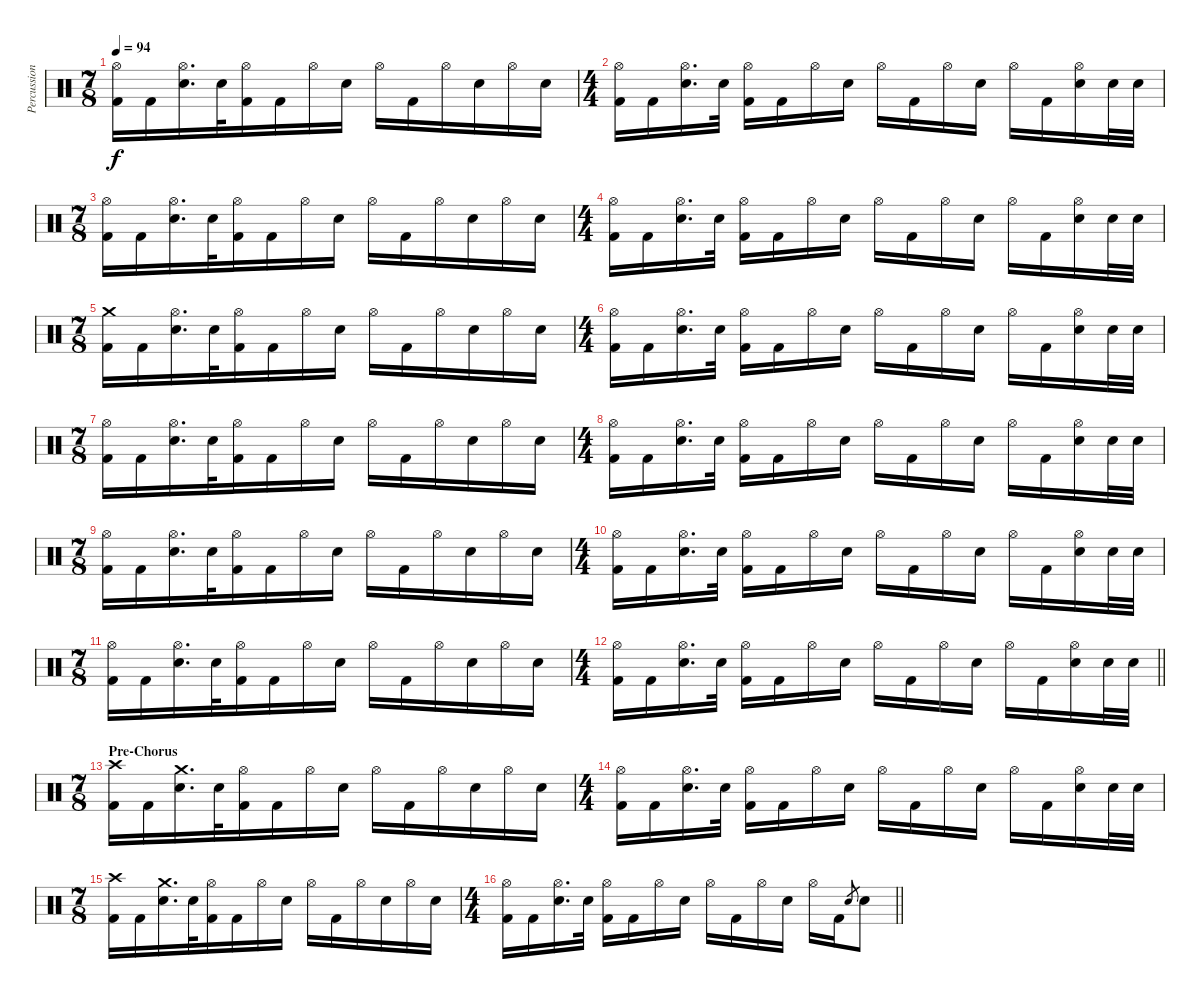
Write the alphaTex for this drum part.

\track ("Percussion" "Percussion") {instrument percussion}
\staff {score}
\articulation defaults
\ts (7 8)
\tempo 94
\clef neutral
\ks c
("Hi-Hat (open)" "Kick (hit) 2").16{dy f} "Kick (hit) 2".16 ("Hi-Hat (open)" "Electric Snare (hit)").16{d} "Electric Snare (hit)".32 ("Hi-Hat (open)" "Kick (hit) 2").16 "Kick (hit) 2".16 "Hi-Hat (open)".16 "Electric Snare (hit)".16 "Hi-Hat (open)".16 "Kick (hit) 2".16 "Hi-Hat (open)".16 "Electric Snare (hit)".16 "Hi-Hat (open)".16 "Electric Snare (hit)".16 |
\ts (4 4)
("Hi-Hat (open)" "Kick (hit) 2").16 "Kick (hit) 2".16 ("Hi-Hat (open)" "Electric Snare (hit)").16{d} "Electric Snare (hit)".32 ("Hi-Hat (open)" "Kick (hit) 2").16 "Kick (hit) 2".16 "Hi-Hat (open)".16 "Electric Snare (hit)".16 "Hi-Hat (open)".16 "Kick (hit) 2".16 "Hi-Hat (open)".16 "Electric Snare (hit)".16 "Hi-Hat (open)".16 "Kick (hit) 2".16 ("Hi-Hat (open)" "Electric Snare (hit)").16 "Electric Snare (hit)".32 "Electric Snare (hit)".32 |
\ts (7 8)
("Hi-Hat (open)" "Kick (hit) 2").16 "Kick (hit) 2".16 ("Hi-Hat (open)" "Electric Snare (hit)").16{d} "Electric Snare (hit)".32 ("Hi-Hat (open)" "Kick (hit) 2").16 "Kick (hit) 2".16 "Hi-Hat (open)".16 "Electric Snare (hit)".16 "Hi-Hat (open)".16 "Kick (hit) 2".16 "Hi-Hat (open)".16 "Electric Snare (hit)".16 "Hi-Hat (open)".16 "Electric Snare (hit)".16 |
\ts (4 4)
("Hi-Hat (open)" "Kick (hit) 2").16 "Kick (hit) 2".16 ("Hi-Hat (open)" "Electric Snare (hit)").16{d} "Electric Snare (hit)".32 ("Hi-Hat (open)" "Kick (hit) 2").16 "Kick (hit) 2".16 "Hi-Hat (open)".16 "Electric Snare (hit)".16 "Hi-Hat (open)".16 "Kick (hit) 2".16 "Hi-Hat (open)".16 "Electric Snare (hit)".16 "Hi-Hat (open)".16 "Kick (hit) 2".16 ("Hi-Hat (open)" "Electric Snare (hit)").16 "Electric Snare (hit)".32 "Electric Snare (hit)".32 |
\ts (7 8)
("Crash medium (hit)" "Kick (hit) 2").16 "Kick (hit) 2".16 ("Hi-Hat (open)" "Electric Snare (hit)").16{d} "Electric Snare (hit)".32 ("Hi-Hat (open)" "Kick (hit) 2").16 "Kick (hit) 2".16 "Hi-Hat (open)".16 "Electric Snare (hit)".16 "Hi-Hat (open)".16 "Kick (hit) 2".16 "Hi-Hat (open)".16 "Electric Snare (hit)".16 "Hi-Hat (open)".16 "Electric Snare (hit)".16 |
\ts (4 4)
("Hi-Hat (open)" "Kick (hit) 2").16 "Kick (hit) 2".16 ("Hi-Hat (open)" "Electric Snare (hit)").16{d} "Electric Snare (hit)".32 ("Hi-Hat (open)" "Kick (hit) 2").16 "Kick (hit) 2".16 "Hi-Hat (open)".16 "Electric Snare (hit)".16 "Hi-Hat (open)".16 "Kick (hit) 2".16 "Hi-Hat (open)".16 "Electric Snare (hit)".16 "Hi-Hat (open)".16 "Kick (hit) 2".16 ("Hi-Hat (open)" "Electric Snare (hit)").16 "Electric Snare (hit)".32 "Electric Snare (hit)".32 |
\ts (7 8)
("Hi-Hat (open)" "Kick (hit) 2").16 "Kick (hit) 2".16 ("Hi-Hat (open)" "Electric Snare (hit)").16{d} "Electric Snare (hit)".32 ("Hi-Hat (open)" "Kick (hit) 2").16 "Kick (hit) 2".16 "Hi-Hat (open)".16 "Electric Snare (hit)".16 "Hi-Hat (open)".16 "Kick (hit) 2".16 "Hi-Hat (open)".16 "Electric Snare (hit)".16 "Hi-Hat (open)".16 "Electric Snare (hit)".16 |
\ts (4 4)
("Hi-Hat (open)" "Kick (hit) 2").16 "Kick (hit) 2".16 ("Hi-Hat (open)" "Electric Snare (hit)").16{d} "Electric Snare (hit)".32 ("Hi-Hat (open)" "Kick (hit) 2").16 "Kick (hit) 2".16 "Hi-Hat (open)".16 "Electric Snare (hit)".16 "Hi-Hat (open)".16 "Kick (hit) 2".16 "Hi-Hat (open)".16 "Electric Snare (hit)".16 "Hi-Hat (open)".16 "Kick (hit) 2".16 ("Hi-Hat (open)" "Electric Snare (hit)").16 "Electric Snare (hit)".32 "Electric Snare (hit)".32 |
\ts (7 8)
("Hi-Hat (open)" "Kick (hit) 2").16 "Kick (hit) 2".16 ("Hi-Hat (open)" "Electric Snare (hit)").16{d} "Electric Snare (hit)".32 ("Hi-Hat (open)" "Kick (hit) 2").16 "Kick (hit) 2".16 "Hi-Hat (open)".16 "Electric Snare (hit)".16 "Hi-Hat (open)".16 "Kick (hit) 2".16 "Hi-Hat (open)".16 "Electric Snare (hit)".16 "Hi-Hat (open)".16 "Electric Snare (hit)".16 |
\ts (4 4)
("Hi-Hat (open)" "Kick (hit) 2").16 "Kick (hit) 2".16 ("Hi-Hat (open)" "Electric Snare (hit)").16{d} "Electric Snare (hit)".32 ("Hi-Hat (open)" "Kick (hit) 2").16 "Kick (hit) 2".16 "Hi-Hat (open)".16 "Electric Snare (hit)".16 "Hi-Hat (open)".16 "Kick (hit) 2".16 "Hi-Hat (open)".16 "Electric Snare (hit)".16 "Hi-Hat (open)".16 "Kick (hit) 2".16 ("Hi-Hat (open)" "Electric Snare (hit)").16 "Electric Snare (hit)".32 "Electric Snare (hit)".32 |
\ts (7 8)
("Hi-Hat (open)" "Kick (hit) 2").16 "Kick (hit) 2".16 ("Hi-Hat (open)" "Electric Snare (hit)").16{d} "Electric Snare (hit)".32 ("Hi-Hat (open)" "Kick (hit) 2").16 "Kick (hit) 2".16 "Hi-Hat (open)".16 "Electric Snare (hit)".16 "Hi-Hat (open)".16 "Kick (hit) 2".16 "Hi-Hat (open)".16 "Electric Snare (hit)".16 "Hi-Hat (open)".16 "Electric Snare (hit)".16 |
\ts (4 4)
\barLineRight lightlight
("Hi-Hat (open)" "Kick (hit) 2").16 "Kick (hit) 2".16 ("Hi-Hat (open)" "Electric Snare (hit)").16{d} "Electric Snare (hit)".32 ("Hi-Hat (open)" "Kick (hit) 2").16 "Kick (hit) 2".16 "Hi-Hat (open)".16 "Electric Snare (hit)".16 "Hi-Hat (open)".16 "Kick (hit) 2".16 "Hi-Hat (open)".16 "Electric Snare (hit)".16 "Hi-Hat (open)".16 "Kick (hit) 2".16 ("Hi-Hat (open)" "Electric Snare (hit)").16 "Electric Snare (hit)".32 "Electric Snare (hit)".32 |
\ts (7 8)
\section ("" "Pre-Chorus")
("Crash high (hit)" "Kick (hit) 2").16 "Kick (hit) 2".16 ("Crash medium (hit)" "Electric Snare (hit)").16{d} "Electric Snare (hit)".32 ("Hi-Hat (open)" "Kick (hit) 2").16 "Kick (hit) 2".16 "Hi-Hat (open)".16 "Electric Snare (hit)".16 "Hi-Hat (open)".16 "Kick (hit) 2".16 "Hi-Hat (open)".16 "Electric Snare (hit)".16 "Hi-Hat (open)".16 "Electric Snare (hit)".16 |
\ts (4 4)
("Hi-Hat (open)" "Kick (hit) 2").16 "Kick (hit) 2".16 ("Hi-Hat (open)" "Electric Snare (hit)").16{d} "Electric Snare (hit)".32 ("Hi-Hat (open)" "Kick (hit) 2").16 "Kick (hit) 2".16 "Hi-Hat (open)".16 "Electric Snare (hit)".16 "Hi-Hat (open)".16 "Kick (hit) 2".16 "Hi-Hat (open)".16 "Electric Snare (hit)".16 "Hi-Hat (open)".16 "Kick (hit) 2".16 ("Hi-Hat (open)" "Electric Snare (hit)").16 "Electric Snare (hit)".32 "Electric Snare (hit)".32 |
\ts (7 8)
("Crash high (hit)" "Kick (hit) 2").16 "Kick (hit) 2".16 ("Crash medium (hit)" "Electric Snare (hit)").16{d} "Electric Snare (hit)".32 ("Hi-Hat (open)" "Kick (hit) 2").16 "Kick (hit) 2".16 "Hi-Hat (open)".16 "Electric Snare (hit)".16 "Hi-Hat (open)".16 "Kick (hit) 2".16 "Hi-Hat (open)".16 "Electric Snare (hit)".16 "Hi-Hat (open)".16 "Electric Snare (hit)".16 |
\ts (4 4)
\barLineRight lightlight
("Hi-Hat (open)" "Kick (hit) 2").16 "Kick (hit) 2".16 ("Hi-Hat (open)" "Electric Snare (hit)").16{d} "Electric Snare (hit)".32 ("Hi-Hat (open)" "Kick (hit) 2").16 "Kick (hit) 2".16 "Hi-Hat (open)".16 "Electric Snare (hit)".16 "Hi-Hat (open)".16 "Kick (hit) 2".16 "Hi-Hat (open)".16 "Electric Snare (hit)".16 "Hi-Hat (open)".16 "Kick (hit) 2".16 "Electric Snare (hit)".8{gr} "Electric Snare (hit)".8
